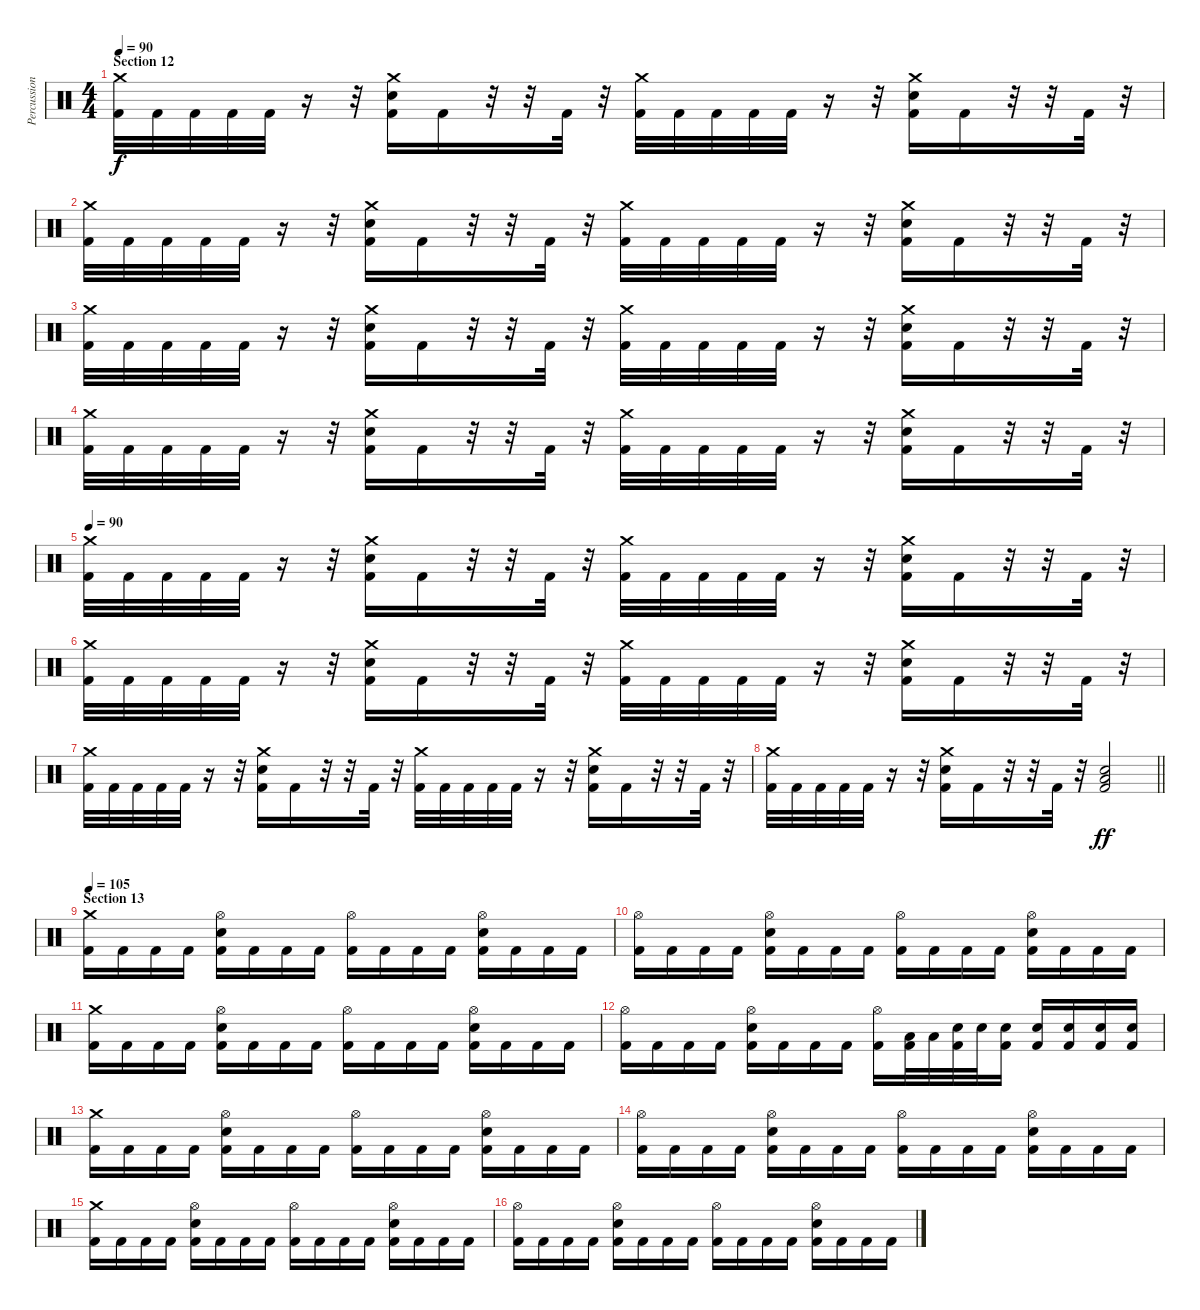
\track ("Percussion" "Percussion") {instrument percussion}
\staff {score}
\articulation defaults
\ts (4 4)
\section ("" "Section 12")
\tempo 90
\clef neutral
\ks c
("Crash medium (hit)" "Kick (hit) 2").32{dy f} "Kick (hit) 2".32 "Kick (hit) 2".32 "Kick (hit) 2".32 "Kick (hit) 2".32 r.16 r.32 ("Crash medium (hit)" "Electric Snare (hit)" "Kick (hit) 2").16 "Kick (hit) 2".16 r.32 r.32 "Kick (hit) 2".32 r.32 ("Crash medium (hit)" "Kick (hit) 2").32 "Kick (hit) 2".32 "Kick (hit) 2".32 "Kick (hit) 2".32 "Kick (hit) 2".32 r.16 r.32 ("Crash medium (hit)" "Electric Snare (hit)" "Kick (hit) 2").16 "Kick (hit) 2".16 r.32 r.32 "Kick (hit) 2".32 r.32 |
("Crash medium (hit)" "Kick (hit) 2").32 "Kick (hit) 2".32 "Kick (hit) 2".32 "Kick (hit) 2".32 "Kick (hit) 2".32 r.16 r.32 ("Crash medium (hit)" "Electric Snare (hit)" "Kick (hit) 2").16 "Kick (hit) 2".16 r.32 r.32 "Kick (hit) 2".32 r.32 ("Crash medium (hit)" "Kick (hit) 2").32 "Kick (hit) 2".32 "Kick (hit) 2".32 "Kick (hit) 2".32 "Kick (hit) 2".32 r.16 r.32 ("Crash medium (hit)" "Electric Snare (hit)" "Kick (hit) 2").16 "Kick (hit) 2".16 r.32 r.32 "Kick (hit) 2".32 r.32 |
("Crash medium (hit)" "Kick (hit) 2").32 "Kick (hit) 2".32 "Kick (hit) 2".32 "Kick (hit) 2".32 "Kick (hit) 2".32 r.16 r.32 ("Crash medium (hit)" "Electric Snare (hit)" "Kick (hit) 2").16 "Kick (hit) 2".16 r.32 r.32 "Kick (hit) 2".32 r.32 ("Crash medium (hit)" "Kick (hit) 2").32 "Kick (hit) 2".32 "Kick (hit) 2".32 "Kick (hit) 2".32 "Kick (hit) 2".32 r.16 r.32 ("Crash medium (hit)" "Electric Snare (hit)" "Kick (hit) 2").16 "Kick (hit) 2".16 r.32 r.32 "Kick (hit) 2".32 r.32 |
("Crash medium (hit)" "Kick (hit) 2").32 "Kick (hit) 2".32 "Kick (hit) 2".32 "Kick (hit) 2".32 "Kick (hit) 2".32 r.16 r.32 ("Crash medium (hit)" "Electric Snare (hit)" "Kick (hit) 2").16 "Kick (hit) 2".16 r.32 r.32 "Kick (hit) 2".32 r.32 ("Crash medium (hit)" "Kick (hit) 2").32 "Kick (hit) 2".32 "Kick (hit) 2".32 "Kick (hit) 2".32 "Kick (hit) 2".32 r.16 r.32 ("Crash medium (hit)" "Electric Snare (hit)" "Kick (hit) 2").16 "Kick (hit) 2".16 r.32 r.32 "Kick (hit) 2".32 r.32 |
\tempo 90
("Crash medium (hit)" "Kick (hit) 2").32 "Kick (hit) 2".32 "Kick (hit) 2".32 "Kick (hit) 2".32 "Kick (hit) 2".32 r.16 r.32 ("Crash medium (hit)" "Electric Snare (hit)" "Kick (hit) 2").16 "Kick (hit) 2".16 r.32 r.32 "Kick (hit) 2".32 r.32 ("Crash medium (hit)" "Kick (hit) 2").32 "Kick (hit) 2".32 "Kick (hit) 2".32 "Kick (hit) 2".32 "Kick (hit) 2".32 r.16 r.32 ("Crash medium (hit)" "Electric Snare (hit)" "Kick (hit) 2").16 "Kick (hit) 2".16 r.32 r.32 "Kick (hit) 2".32 r.32 |
("Crash medium (hit)" "Kick (hit) 2").32 "Kick (hit) 2".32 "Kick (hit) 2".32 "Kick (hit) 2".32 "Kick (hit) 2".32 r.16 r.32 ("Crash medium (hit)" "Electric Snare (hit)" "Kick (hit) 2").16 "Kick (hit) 2".16 r.32 r.32 "Kick (hit) 2".32 r.32 ("Crash medium (hit)" "Kick (hit) 2").32 "Kick (hit) 2".32 "Kick (hit) 2".32 "Kick (hit) 2".32 "Kick (hit) 2".32 r.16 r.32 ("Crash medium (hit)" "Electric Snare (hit)" "Kick (hit) 2").16 "Kick (hit) 2".16 r.32 r.32 "Kick (hit) 2".32 r.32 |
("Crash medium (hit)" "Kick (hit) 2").32 "Kick (hit) 2".32 "Kick (hit) 2".32 "Kick (hit) 2".32 "Kick (hit) 2".32 r.16 r.32 ("Crash medium (hit)" "Electric Snare (hit)" "Kick (hit) 2").16 "Kick (hit) 2".16 r.32 r.32 "Kick (hit) 2".32 r.32 ("Crash medium (hit)" "Kick (hit) 2").32 "Kick (hit) 2".32 "Kick (hit) 2".32 "Kick (hit) 2".32 "Kick (hit) 2".32 r.16 r.32 ("Crash medium (hit)" "Electric Snare (hit)" "Kick (hit) 2").16 "Kick (hit) 2".16 r.32 r.32 "Kick (hit) 2".32 r.32 |
\barLineRight lightlight
("Crash medium (hit)" "Kick (hit) 2").32 "Kick (hit) 2".32 "Kick (hit) 2".32 "Kick (hit) 2".32 "Kick (hit) 2".32 r.16 r.32 ("Crash medium (hit)" "Electric Snare (hit)" "Kick (hit) 2").16 "Kick (hit) 2".16 r.32 r.32 "Kick (hit) 2".32 r.32 ("Electric Snare (hit)" "Low Floor Tom (hit)" "Kick (hit) 2").2{dy ff} |
\section ("" "Section 13")
\tempo 105
("Crash medium (hit)" "Kick (hit) 2").16 "Kick (hit) 2".16 "Kick (hit) 2".16 "Kick (hit) 2".16 ("Hi-Hat (open)" "Electric Snare (hit)" "Kick (hit) 2").16 "Kick (hit) 2".16 "Kick (hit) 2".16 "Kick (hit) 2".16 ("Hi-Hat (open)" "Kick (hit) 2").16 "Kick (hit) 2".16 "Kick (hit) 2".16 "Kick (hit) 2".16 ("Hi-Hat (open)" "Electric Snare (hit)" "Kick (hit) 2").16 "Kick (hit) 2".16 "Kick (hit) 2".16 "Kick (hit) 2".16 |
("Hi-Hat (open)" "Kick (hit) 2").16 "Kick (hit) 2".16 "Kick (hit) 2".16 "Kick (hit) 2".16 ("Hi-Hat (open)" "Electric Snare (hit)" "Kick (hit) 2").16 "Kick (hit) 2".16 "Kick (hit) 2".16 "Kick (hit) 2".16 ("Hi-Hat (open)" "Kick (hit) 2").16 "Kick (hit) 2".16 "Kick (hit) 2".16 "Kick (hit) 2".16 ("Hi-Hat (open)" "Electric Snare (hit)" "Kick (hit) 2").16 "Kick (hit) 2".16 "Kick (hit) 2".16 "Kick (hit) 2".16 |
("Crash medium (hit)" "Kick (hit) 2").16 "Kick (hit) 2".16 "Kick (hit) 2".16 "Kick (hit) 2".16 ("Hi-Hat (open)" "Electric Snare (hit)" "Kick (hit) 2").16 "Kick (hit) 2".16 "Kick (hit) 2".16 "Kick (hit) 2".16 ("Hi-Hat (open)" "Kick (hit) 2").16 "Kick (hit) 2".16 "Kick (hit) 2".16 "Kick (hit) 2".16 ("Hi-Hat (open)" "Electric Snare (hit)" "Kick (hit) 2").16 "Kick (hit) 2".16 "Kick (hit) 2".16 "Kick (hit) 2".16 |
("Hi-Hat (open)" "Kick (hit) 2").16 "Kick (hit) 2".16 "Kick (hit) 2".16 "Kick (hit) 2".16 ("Hi-Hat (open)" "Electric Snare (hit)" "Kick (hit) 2").16 "Kick (hit) 2".16 "Kick (hit) 2".16 "Kick (hit) 2".16 ("Hi-Hat (open)" "Kick (hit) 2").16 ("Low Tom (hit)" "Kick (hit) 2").32 "Low Tom (hit)".32 ("Electric Snare (hit)" "Kick (hit) 2").32 "Electric Snare (hit)".32 ("Electric Snare (hit)" "Kick (hit) 2").16 ("Electric Snare (hit)" "Kick (hit) 2").16 ("Electric Snare (hit)" "Kick (hit) 2").16 ("Electric Snare (hit)" "Kick (hit) 2").16 ("Electric Snare (hit)" "Kick (hit) 2").16 |
("Crash medium (hit)" "Kick (hit) 2").16 "Kick (hit) 2".16 "Kick (hit) 2".16 "Kick (hit) 2".16 ("Hi-Hat (open)" "Electric Snare (hit)" "Kick (hit) 2").16 "Kick (hit) 2".16 "Kick (hit) 2".16 "Kick (hit) 2".16 ("Hi-Hat (open)" "Kick (hit) 2").16 "Kick (hit) 2".16 "Kick (hit) 2".16 "Kick (hit) 2".16 ("Hi-Hat (open)" "Electric Snare (hit)" "Kick (hit) 2").16 "Kick (hit) 2".16 "Kick (hit) 2".16 "Kick (hit) 2".16 |
("Hi-Hat (open)" "Kick (hit) 2").16 "Kick (hit) 2".16 "Kick (hit) 2".16 "Kick (hit) 2".16 ("Hi-Hat (open)" "Electric Snare (hit)" "Kick (hit) 2").16 "Kick (hit) 2".16 "Kick (hit) 2".16 "Kick (hit) 2".16 ("Hi-Hat (open)" "Kick (hit) 2").16 "Kick (hit) 2".16 "Kick (hit) 2".16 "Kick (hit) 2".16 ("Hi-Hat (open)" "Electric Snare (hit)" "Kick (hit) 2").16 "Kick (hit) 2".16 "Kick (hit) 2".16 "Kick (hit) 2".16 |
("Crash medium (hit)" "Kick (hit) 2").16 "Kick (hit) 2".16 "Kick (hit) 2".16 "Kick (hit) 2".16 ("Hi-Hat (open)" "Electric Snare (hit)" "Kick (hit) 2").16 "Kick (hit) 2".16 "Kick (hit) 2".16 "Kick (hit) 2".16 ("Hi-Hat (open)" "Kick (hit) 2").16 "Kick (hit) 2".16 "Kick (hit) 2".16 "Kick (hit) 2".16 ("Hi-Hat (open)" "Electric Snare (hit)" "Kick (hit) 2").16 "Kick (hit) 2".16 "Kick (hit) 2".16 "Kick (hit) 2".16 |
("Hi-Hat (open)" "Kick (hit) 2").16 "Kick (hit) 2".16 "Kick (hit) 2".16 "Kick (hit) 2".16 ("Hi-Hat (open)" "Electric Snare (hit)" "Kick (hit) 2").16 "Kick (hit) 2".16 "Kick (hit) 2".16 "Kick (hit) 2".16 ("Hi-Hat (open)" "Kick (hit) 2").16 "Kick (hit) 2".16 "Kick (hit) 2".16 "Kick (hit) 2".16 ("Hi-Hat (open)" "Electric Snare (hit)" "Kick (hit) 2").16 "Kick (hit) 2".16 "Kick (hit) 2".16 "Kick (hit) 2".16
